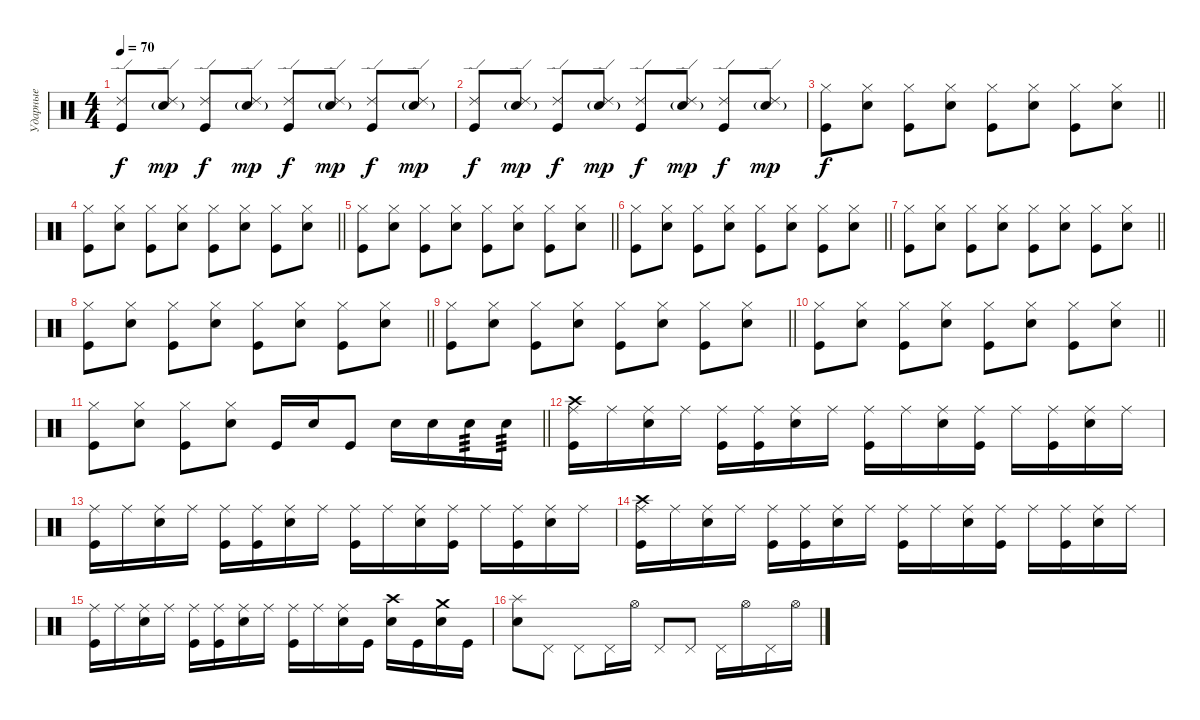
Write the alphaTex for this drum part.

\track ("Ударные" "Ударные") {instrument percussion}
\staff {score}
\articulation defaults
\ts (4 4)
\tempo 70
\clef neutral
\ks c
("Ride (edge) 2" "Kick (hit)").8{dy f} ("Ride (edge) 2" "Snare (hit) 2"{g}).8{dy mp} ("Ride (edge) 2" "Kick (hit)").8{dy f} ("Ride (edge) 2" "Snare (hit) 2"{g}).8{dy mp} ("Ride (edge) 2" "Kick (hit)").8{dy f} ("Ride (edge) 2" "Snare (hit) 2"{g}).8{dy mp} ("Ride (edge) 2" "Kick (hit)").8{dy f} ("Ride (edge) 2" "Snare (hit) 2"{g}).8{dy mp} |
("Ride (edge) 2" "Kick (hit)").8{dy f} ("Ride (edge) 2" "Snare (hit) 2"{g}).8{dy mp} ("Ride (edge) 2" "Kick (hit)").8{dy f} ("Ride (edge) 2" "Snare (hit) 2"{g}).8{dy mp} ("Ride (edge) 2" "Kick (hit)").8{dy f} ("Ride (edge) 2" "Snare (hit) 2"{g}).8{dy mp} ("Ride (edge) 2" "Kick (hit)").8{dy f} ("Ride (edge) 2" "Snare (hit) 2"{g}).8{dy mp} |
\barLineRight lightlight
("Hi-Hat (closed)" "Kick (hit)").8{dy f} ("Hi-Hat (closed)" "Electric Snare (hit)").8 ("Hi-Hat (closed)" "Kick (hit)").8 ("Hi-Hat (closed)" "Electric Snare (hit)").8 ("Hi-Hat (closed)" "Kick (hit)").8 ("Hi-Hat (closed)" "Electric Snare (hit)").8 ("Hi-Hat (closed)" "Kick (hit)").8 ("Hi-Hat (closed)" "Electric Snare (hit)").8 |
\barLineRight lightlight
("Hi-Hat (closed)" "Kick (hit)").8 ("Hi-Hat (closed)" "Electric Snare (hit)").8 ("Hi-Hat (closed)" "Kick (hit)").8 ("Hi-Hat (closed)" "Electric Snare (hit)").8 ("Hi-Hat (closed)" "Kick (hit)").8 ("Hi-Hat (closed)" "Electric Snare (hit)").8 ("Hi-Hat (closed)" "Kick (hit)").8 ("Hi-Hat (closed)" "Electric Snare (hit)").8 |
\barLineRight lightlight
("Hi-Hat (closed)" "Kick (hit)").8 ("Hi-Hat (closed)" "Electric Snare (hit)").8 ("Hi-Hat (closed)" "Kick (hit)").8 ("Hi-Hat (closed)" "Electric Snare (hit)").8 ("Hi-Hat (closed)" "Kick (hit)").8 ("Hi-Hat (closed)" "Electric Snare (hit)").8 ("Hi-Hat (closed)" "Kick (hit)").8 ("Hi-Hat (closed)" "Electric Snare (hit)").8 |
\barLineRight lightlight
("Hi-Hat (closed)" "Kick (hit)").8 ("Hi-Hat (closed)" "Electric Snare (hit)").8 ("Hi-Hat (closed)" "Kick (hit)").8 ("Hi-Hat (closed)" "Electric Snare (hit)").8 ("Hi-Hat (closed)" "Kick (hit)").8 ("Hi-Hat (closed)" "Electric Snare (hit)").8 ("Hi-Hat (closed)" "Kick (hit)").8 ("Hi-Hat (closed)" "Electric Snare (hit)").8 |
\barLineRight lightlight
("Hi-Hat (closed)" "Kick (hit)").8 ("Hi-Hat (closed)" "Electric Snare (hit)").8 ("Hi-Hat (closed)" "Kick (hit)").8 ("Hi-Hat (closed)" "Electric Snare (hit)").8 ("Hi-Hat (closed)" "Kick (hit)").8 ("Hi-Hat (closed)" "Electric Snare (hit)").8 ("Hi-Hat (closed)" "Kick (hit)").8 ("Hi-Hat (closed)" "Electric Snare (hit)").8 |
\barLineRight lightlight
("Hi-Hat (closed)" "Kick (hit)").8 ("Hi-Hat (closed)" "Electric Snare (hit)").8 ("Hi-Hat (closed)" "Kick (hit)").8 ("Hi-Hat (closed)" "Electric Snare (hit)").8 ("Hi-Hat (closed)" "Kick (hit)").8 ("Hi-Hat (closed)" "Electric Snare (hit)").8 ("Hi-Hat (closed)" "Kick (hit)").8 ("Hi-Hat (closed)" "Electric Snare (hit)").8 |
\barLineRight lightlight
("Hi-Hat (closed)" "Kick (hit)").8 ("Hi-Hat (closed)" "Electric Snare (hit)").8 ("Hi-Hat (closed)" "Kick (hit)").8 ("Hi-Hat (closed)" "Electric Snare (hit)").8 ("Hi-Hat (closed)" "Kick (hit)").8 ("Hi-Hat (closed)" "Electric Snare (hit)").8 ("Hi-Hat (closed)" "Kick (hit)").8 ("Hi-Hat (closed)" "Electric Snare (hit)").8 |
\barLineRight lightlight
("Hi-Hat (closed)" "Kick (hit)").8 ("Hi-Hat (closed)" "Electric Snare (hit)").8 ("Hi-Hat (closed)" "Kick (hit)").8 ("Hi-Hat (closed)" "Electric Snare (hit)").8 ("Hi-Hat (closed)" "Kick (hit)").8 ("Hi-Hat (closed)" "Electric Snare (hit)").8 ("Hi-Hat (closed)" "Kick (hit)").8 ("Hi-Hat (closed)" "Electric Snare (hit)").8 |
\barLineRight lightlight
("Hi-Hat (closed)" "Kick (hit)").8 ("Hi-Hat (closed)" "Electric Snare (hit)").8 ("Hi-Hat (closed)" "Kick (hit)").8 ("Hi-Hat (closed)" "Electric Snare (hit)").8 "Kick (hit)".16 "Electric Snare (hit)".16 "Kick (hit)".8 "Electric Snare (hit)".16 "Electric Snare (hit)".16 "Electric Snare (hit)".16{tp 3} "Electric Snare (hit)".16{tp 3} |
("Ride (middle)" "Crash high (hit)" "Kick (hit)").16 "Ride (middle)".16 ("Ride (middle)" "Electric Snare (hit)").16 "Ride (middle)".16 ("Ride (middle)" "Kick (hit)").16 ("Ride (middle)" "Kick (hit)").16 ("Ride (middle)" "Electric Snare (hit)").16 "Ride (middle)".16 ("Ride (middle)" "Kick (hit)").16 "Ride (middle)".16 ("Ride (middle)" "Electric Snare (hit)").16 ("Ride (middle)" "Kick (hit)").16 "Ride (middle)".16 ("Ride (middle)" "Kick (hit)").16 ("Ride (middle)" "Electric Snare (hit)").16 "Ride (middle)".16 |
("Ride (middle)" "Kick (hit)").16 "Ride (middle)".16 ("Ride (middle)" "Electric Snare (hit)").16 "Ride (middle)".16 ("Ride (middle)" "Kick (hit)").16 ("Ride (middle)" "Kick (hit)").16 ("Ride (middle)" "Electric Snare (hit)").16 "Ride (middle)".16 ("Ride (middle)" "Kick (hit)").16 "Ride (middle)".16 ("Ride (middle)" "Electric Snare (hit)").16 ("Ride (middle)" "Kick (hit)").16 "Ride (middle)".16 ("Ride (middle)" "Kick (hit)").16 ("Ride (middle)" "Electric Snare (hit)").16 "Ride (middle)".16 |
("Ride (middle)" "Crash high (hit)" "Kick (hit)").16 "Ride (middle)".16 ("Ride (middle)" "Electric Snare (hit)").16 "Ride (middle)".16 ("Ride (middle)" "Kick (hit)").16 ("Ride (middle)" "Kick (hit)").16 ("Ride (middle)" "Electric Snare (hit)").16 "Ride (middle)".16 ("Ride (middle)" "Kick (hit)").16 "Ride (middle)".16 ("Ride (middle)" "Electric Snare (hit)").16 ("Ride (middle)" "Kick (hit)").16 "Ride (middle)".16 ("Ride (middle)" "Kick (hit)").16 ("Ride (middle)" "Electric Snare (hit)").16 "Ride (middle)".16 |
("Ride (middle)" "Kick (hit)").16 "Ride (middle)".16 ("Ride (middle)" "Electric Snare (hit)").16 "Ride (middle)".16 ("Ride (middle)" "Kick (hit)").16 ("Ride (middle)" "Kick (hit)").16 ("Ride (middle)" "Electric Snare (hit)").16 "Ride (middle)".16 ("Ride (middle)" "Kick (hit)").16 "Ride (middle)".16 ("Ride (middle)" "Electric Snare (hit)").16 "Kick (hit)".16 ("Crash high (hit)" "Electric Snare (hit)").16 "Kick (hit)".16{volume 0} ("Crash medium (hit)" "Electric Snare (hit)").16{volume 13} "Kick (hit)".16{volume 0} |
("Splash (hit)" "Electric Snare (hit)").8{volume 13} "Pedal Hi-Hat (hit)".8 "Pedal Hi-Hat (hit)".8 "Pedal Hi-Hat (hit)".16 "Hi-Hat (open)".16 "Pedal Hi-Hat (hit)".8 "Pedal Hi-Hat (hit)".8 "Pedal Hi-Hat (hit)".16 "Hi-Hat (open)".16 "Pedal Hi-Hat (hit)".16 "Hi-Hat (open)".16
